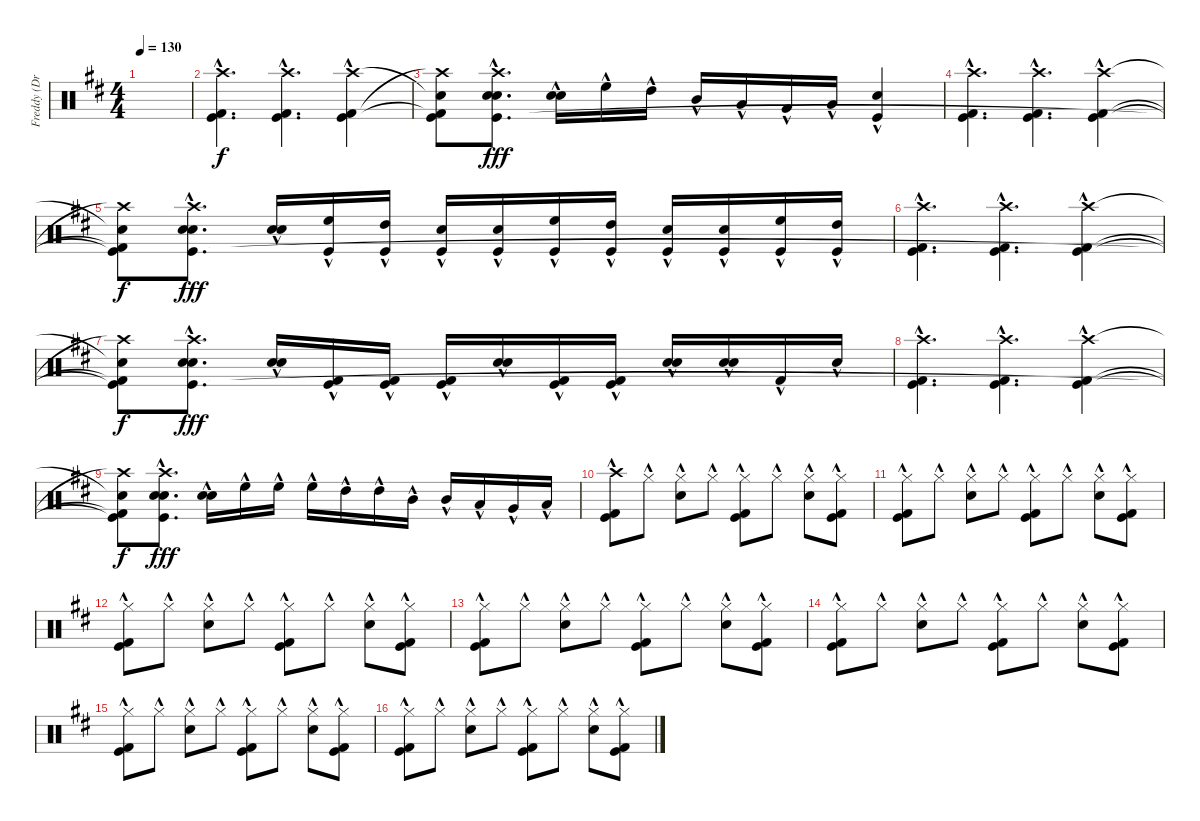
\track ("Freddy (Drums)" "Freddy (Dr") {instrument percussion}
\staff {score}
\articulation defaults
\ts (4 4)
\tempo 130
\clef neutral
\ks d
|
("Crash high (hit)"{hac} "Kick (hit) 2"{hac} "Kick (hit)"{hac}).4{d} ("Crash high (hit)"{hac} "Kick (hit) 2"{hac} "Kick (hit)"{hac}).4{d} ("Crash high (hit)"{hac} "Kick (hit) 2"{hac} "Kick (hit)"{hac}).4 |
("Snare (hit)"{t} "Crash high (hit)"{t} "Kick (hit) 2"{t} "Kick (hit)").8{dy f} ("Crash high (hit)"{hac} "Snare (hit) 2"{hac} "Electric Snare (hit)"{hac} "Kick (hit)"{hac}).8{d dy fff} ("Snare (hit) 2"{hac} "Electric Snare (hit)"{hac}).16 "High Floor Tom (hit)"{hac}.16 "High Tom (hit)"{hac}.16 "Mid Tom (hit)"{hac}.16 "Low Tom (hit)"{hac}.16 "Very Low Tom (hit)"{hac}.16 "Low Floor Tom (hit)"{hac}.16 ("Kick (hit)"{hac} "Electric Snare (hit)"{hac}).4 |
("Crash high (hit)"{hac} "Kick (hit) 2"{hac} "Kick (hit)"{hac}).4{d} ("Crash high (hit)"{hac} "Kick (hit) 2"{hac} "Kick (hit)"{hac}).4{d} ("Crash high (hit)"{hac} "Kick (hit) 2"{hac} "Kick (hit)"{hac}).4 |
("Snare (hit)"{t} "Crash high (hit)"{t} "Kick (hit) 2"{t} "Kick (hit)"{t}).8{dy f} ("Crash high (hit)"{hac} "Snare (hit) 2"{hac} "Electric Snare (hit)"{hac} "Kick (hit)"{hac}).8{d dy fff} ("Snare (hit) 2"{hac} "Electric Snare (hit)"{hac}).16 ("High Floor Tom (hit)"{hac} "Kick (hit)"{hac}).16 ("High Tom (hit)"{hac} "Kick (hit)"{hac}).16 ("Snare (hit) 2"{hac} "Kick (hit)"{hac}).16 ("Snare (hit) 2"{hac} "Kick (hit)"{hac}).16 ("High Floor Tom (hit)"{hac} "Kick (hit)"{hac}).16 ("High Tom (hit)"{hac} "Kick (hit)"{hac}).16 ("Snare (hit) 2"{hac} "Kick (hit)"{hac}).16 ("Snare (hit) 2"{hac} "Kick (hit)"{hac}).16 ("High Floor Tom (hit)"{hac} "Kick (hit)"{hac}).16 ("High Tom (hit)"{hac} "Kick (hit)"{hac}).16 |
("Crash high (hit)"{hac} "Kick (hit) 2"{hac} "Kick (hit)"{hac}).4{d} ("Crash high (hit)"{hac} "Kick (hit) 2"{hac} "Kick (hit)"{hac}).4{d} ("Crash high (hit)"{hac} "Kick (hit) 2"{hac} "Kick (hit)"{hac}).4 |
("Snare (hit)"{t} "Crash high (hit)"{t} "Kick (hit) 2"{t} "Kick (hit)"{t}).8{dy f} ("Crash high (hit)"{hac} "Snare (hit) 2"{hac} "Electric Snare (hit)"{hac} "Kick (hit)"{hac}).8{d dy fff} ("Snare (hit) 2"{hac} "Electric Snare (hit)"{hac}).16 ("Kick (hit) 2"{hac} "Kick (hit)"{hac}).16 ("Kick (hit) 2"{hac} "Kick (hit)"{hac}).16 ("Kick (hit) 2"{hac} "Kick (hit)"{hac}).16 ("Snare (hit) 2"{hac} "Electric Snare (hit)"{hac}).16 ("Kick (hit) 2"{hac} "Kick (hit)"{hac}).16 ("Kick (hit) 2"{hac} "Kick (hit)"{hac}).16 ("Electric Snare (hit)"{hac} "Snare (hit) 2"{hac}).16 ("Electric Snare (hit)"{hac} "Snare (hit) 2"{hac}).16 "Kick (hit) 2"{hac}.16 "Electric Snare (hit)"{hac}.16 |
("Crash high (hit)"{hac} "Kick (hit) 2"{hac} "Kick (hit)"{hac}).4{d} ("Crash high (hit)"{hac} "Kick (hit) 2"{hac} "Kick (hit)"{hac}).4{d} ("Crash high (hit)"{hac} "Kick (hit) 2"{hac} "Kick (hit)"{hac}).4 |
("Snare (hit)"{t} "Crash high (hit)"{t} "Kick (hit) 2"{t} "Kick (hit)"{t}).8{dy f} ("Crash high (hit)"{hac} "Snare (hit) 2"{hac} "Electric Snare (hit)"{hac} "Kick (hit)"{hac}).8{d dy fff} ("Snare (hit) 2"{hac} "Electric Snare (hit)"{hac}).16 "High Floor Tom (hit)"{hac}.16 "High Floor Tom (hit)"{hac}.16 "High Floor Tom (hit)"{hac}.16 "High Tom (hit)"{hac}.16 "High Tom (hit)"{hac}.16 "Mid Tom (hit)"{hac}.16 "Mid Tom (hit)"{hac}.16 "Low Tom (hit)"{hac}.16 "Very Low Tom (hit)"{hac}.16 "Low Floor Tom (hit)"{hac}.16 |
("Crash high (hit)"{hac} "Kick (hit)"{hac} "Kick (hit) 2"{hac}).8 "Hi-Hat (closed)"{hac}.8 ("Hi-Hat (closed)"{hac} "Snare (hit) 2"{hac}).8 "Hi-Hat (closed)"{hac}.8 ("Hi-Hat (closed)"{hac} "Kick (hit)"{hac} "Kick (hit) 2"{hac}).8 "Hi-Hat (closed)"{hac}.8 ("Hi-Hat (closed)"{hac} "Snare (hit) 2"{hac}).8 ("Hi-Hat (closed)"{hac} "Kick (hit)"{hac} "Kick (hit) 2"{hac}).8 |
("Hi-Hat (closed)"{hac} "Kick (hit)"{hac} "Kick (hit) 2"{hac}).8 "Hi-Hat (closed)"{hac}.8 ("Hi-Hat (closed)"{hac} "Snare (hit) 2"{hac}).8 "Hi-Hat (closed)"{hac}.8 ("Hi-Hat (closed)"{hac} "Kick (hit)"{hac} "Kick (hit) 2"{hac}).8 "Hi-Hat (closed)"{hac}.8 ("Hi-Hat (closed)"{hac} "Snare (hit) 2"{hac}).8 ("Hi-Hat (closed)"{hac} "Kick (hit)"{hac} "Kick (hit) 2"{hac}).8 |
("Hi-Hat (closed)"{hac} "Kick (hit)"{hac} "Kick (hit) 2"{hac}).8 "Hi-Hat (closed)"{hac}.8 ("Hi-Hat (closed)"{hac} "Snare (hit) 2"{hac}).8 "Hi-Hat (closed)"{hac}.8 ("Hi-Hat (closed)"{hac} "Kick (hit)"{hac} "Kick (hit) 2"{hac}).8 "Hi-Hat (closed)"{hac}.8 ("Hi-Hat (closed)"{hac} "Snare (hit) 2"{hac}).8 ("Hi-Hat (closed)"{hac} "Kick (hit)"{hac} "Kick (hit) 2"{hac}).8 |
("Hi-Hat (closed)"{hac} "Kick (hit)"{hac} "Kick (hit) 2"{hac}).8 "Hi-Hat (closed)"{hac}.8 ("Hi-Hat (closed)"{hac} "Snare (hit) 2"{hac}).8 "Hi-Hat (closed)"{hac}.8 ("Hi-Hat (closed)"{hac} "Kick (hit)"{hac} "Kick (hit) 2"{hac}).8 "Hi-Hat (closed)"{hac}.8 ("Hi-Hat (closed)"{hac} "Snare (hit) 2"{hac}).8 ("Hi-Hat (closed)"{hac} "Kick (hit)"{hac} "Kick (hit) 2"{hac}).8 |
("Hi-Hat (closed)"{hac} "Kick (hit)"{hac} "Kick (hit) 2"{hac}).8 "Hi-Hat (closed)"{hac}.8 ("Hi-Hat (closed)"{hac} "Snare (hit) 2"{hac}).8 "Hi-Hat (closed)"{hac}.8 ("Hi-Hat (closed)"{hac} "Kick (hit)"{hac} "Kick (hit) 2"{hac}).8 "Hi-Hat (closed)"{hac}.8 ("Hi-Hat (closed)"{hac} "Snare (hit) 2"{hac}).8 ("Hi-Hat (closed)"{hac} "Kick (hit)"{hac} "Kick (hit) 2"{hac}).8 |
("Hi-Hat (closed)"{hac} "Kick (hit)"{hac} "Kick (hit) 2"{hac}).8 "Hi-Hat (closed)"{hac}.8 ("Hi-Hat (closed)"{hac} "Snare (hit) 2"{hac}).8 "Hi-Hat (closed)"{hac}.8 ("Hi-Hat (closed)"{hac} "Kick (hit)"{hac} "Kick (hit) 2"{hac}).8 "Hi-Hat (closed)"{hac}.8 ("Hi-Hat (closed)"{hac} "Snare (hit) 2"{hac}).8 ("Hi-Hat (closed)"{hac} "Kick (hit)"{hac} "Kick (hit) 2"{hac}).8 |
("Hi-Hat (closed)"{hac} "Kick (hit)"{hac} "Kick (hit) 2"{hac}).8 "Hi-Hat (closed)"{hac}.8 ("Hi-Hat (closed)"{hac} "Snare (hit) 2"{hac}).8 "Hi-Hat (closed)"{hac}.8 ("Hi-Hat (closed)"{hac} "Kick (hit)"{hac} "Kick (hit) 2"{hac}).8 "Hi-Hat (closed)"{hac}.8 ("Hi-Hat (closed)"{hac} "Snare (hit) 2"{hac}).8 ("Hi-Hat (closed)"{hac} "Kick (hit)"{hac} "Kick (hit) 2"{hac}).8
